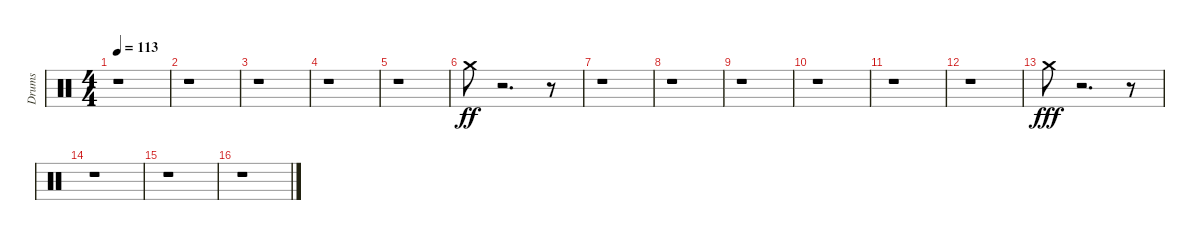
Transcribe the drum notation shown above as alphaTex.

\track ("Drums" "Drums") {instrument percussion}
\staff {score}
\articulation defaults
\ts (4 4)
\tempo 113
\clef neutral
\ks c
r.1{dy f} |
r.1 |
r.1 |
r.1 |
r.1 |
"Crash medium (hit)".8{dy ff} r.2{d} r.8 |
r.1 |
r.1 |
r.1 |
r.1 |
r.1 |
r.1 |
"Crash medium (hit)".8{dy fff} r.2{d} r.8 |
r.1 |
r.1 |
r.1
